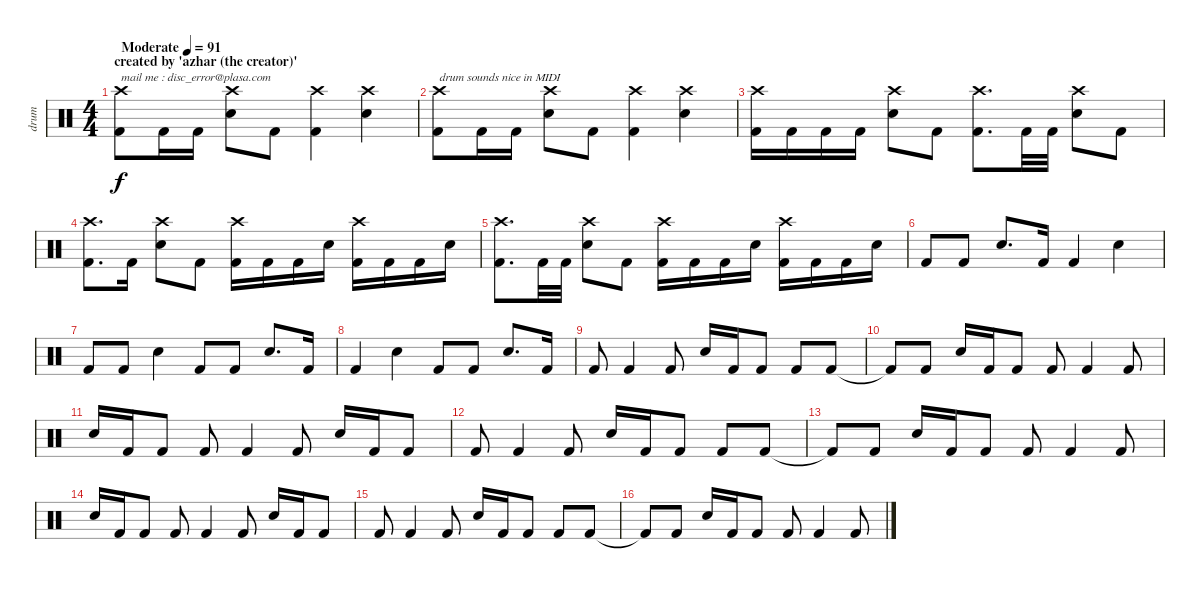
\track ("drum" "drum") {instrument percussion}
\staff {score}
\articulation defaults
\ts (4 4)
\section ("" "created by 'azhar (the creator)'")
\tempo (91 "Moderate")
\clef neutral
\ks c
("Crash high (hit)" "Kick (hit) 2").8{txt "mail me : disc_error@plasa.com" dy f} "Kick (hit) 2".16 "Kick (hit) 2".16 ("Crash high (hit)" "Electric Snare (hit)").8 "Kick (hit) 2".8 ("Crash high (hit)" "Kick (hit) 2").4 ("Crash high (hit)" "Electric Snare (hit)").4 |
("Crash high (hit)" "Kick (hit) 2").8{txt "drum sounds nice in MIDI"} "Kick (hit) 2".16 "Kick (hit) 2".16 ("Crash high (hit)" "Electric Snare (hit)").8 "Kick (hit) 2".8 ("Crash high (hit)" "Kick (hit) 2").4 ("Crash high (hit)" "Electric Snare (hit)").4 |
("Crash high (hit)" "Kick (hit) 2").16 "Kick (hit) 2".16 "Kick (hit) 2".16 "Kick (hit) 2".16 ("Crash high (hit)" "Electric Snare (hit)").8 "Kick (hit) 2".8 ("Crash high (hit)" "Kick (hit) 2").8{d} "Kick (hit) 2".32 "Kick (hit) 2".32 ("Crash high (hit)" "Electric Snare (hit)").8 "Kick (hit) 2".8 |
("Crash high (hit)" "Kick (hit) 2").8{d} "Kick (hit) 2".16 ("Crash high (hit)" "Electric Snare (hit)").8 "Kick (hit) 2".8 ("Crash high (hit)" "Kick (hit) 2").16 "Kick (hit) 2".16 "Kick (hit) 2".16 "Electric Snare (hit)".16 ("Crash high (hit)" "Kick (hit) 2").16 "Kick (hit) 2".16 "Kick (hit) 2".16 "Electric Snare (hit)".16 |
("Crash high (hit)" "Kick (hit) 2").8{d} "Kick (hit) 2".32 "Kick (hit) 2".32 ("Crash high (hit)" "Electric Snare (hit)").8 "Kick (hit) 2".8 ("Crash high (hit)" "Kick (hit) 2").16 "Kick (hit) 2".16 "Kick (hit) 2".16 "Electric Snare (hit)".16 ("Crash high (hit)" "Kick (hit) 2").16 "Kick (hit) 2".16 "Kick (hit) 2".16 "Electric Snare (hit)".16 |
"Kick (hit) 2".8 "Kick (hit) 2".8 "Electric Snare (hit)".8{d} "Kick (hit) 2".16 "Kick (hit) 2".4 "Electric Snare (hit)".4 |
"Kick (hit) 2".8 "Kick (hit) 2".8 "Electric Snare (hit)".4 "Kick (hit) 2".8 "Kick (hit) 2".8 "Electric Snare (hit)".8{d} "Kick (hit) 2".16 |
"Kick (hit) 2".4 "Electric Snare (hit)".4 "Kick (hit) 2".8 "Kick (hit) 2".8 "Electric Snare (hit)".8{d} "Kick (hit) 2".16 |
"Kick (hit) 2".8 "Kick (hit) 2".4 "Kick (hit) 2".8 "Electric Snare (hit)".16 "Kick (hit) 2".16 "Kick (hit) 2".8 "Kick (hit) 2".8 "Kick (hit) 2".8 |
"Kick (hit) 2"{t}.8 "Kick (hit) 2".8 "Electric Snare (hit)".16 "Kick (hit) 2".16 "Kick (hit) 2".8 "Kick (hit) 2".8 "Kick (hit) 2".4 "Kick (hit) 2".8 |
"Electric Snare (hit)".16 "Kick (hit) 2".16 "Kick (hit) 2".8 "Kick (hit) 2".8 "Kick (hit) 2".4 "Kick (hit) 2".8 "Electric Snare (hit)".16 "Kick (hit) 2".16 "Kick (hit) 2".8 |
"Kick (hit) 2".8 "Kick (hit) 2".4 "Kick (hit) 2".8 "Electric Snare (hit)".16 "Kick (hit) 2".16 "Kick (hit) 2".8 "Kick (hit) 2".8 "Kick (hit) 2".8 |
"Kick (hit) 2"{t}.8 "Kick (hit) 2".8 "Electric Snare (hit)".16 "Kick (hit) 2".16 "Kick (hit) 2".8 "Kick (hit) 2".8 "Kick (hit) 2".4 "Kick (hit) 2".8 |
"Electric Snare (hit)".16 "Kick (hit) 2".16 "Kick (hit) 2".8 "Kick (hit) 2".8 "Kick (hit) 2".4 "Kick (hit) 2".8 "Electric Snare (hit)".16 "Kick (hit) 2".16 "Kick (hit) 2".8 |
"Kick (hit) 2".8 "Kick (hit) 2".4 "Kick (hit) 2".8 "Electric Snare (hit)".16 "Kick (hit) 2".16 "Kick (hit) 2".8 "Kick (hit) 2".8 "Kick (hit) 2".8 |
"Kick (hit) 2"{t}.8 "Kick (hit) 2".8 "Electric Snare (hit)".16 "Kick (hit) 2".16 "Kick (hit) 2".8 "Kick (hit) 2".8 "Kick (hit) 2".4 "Kick (hit) 2".8
